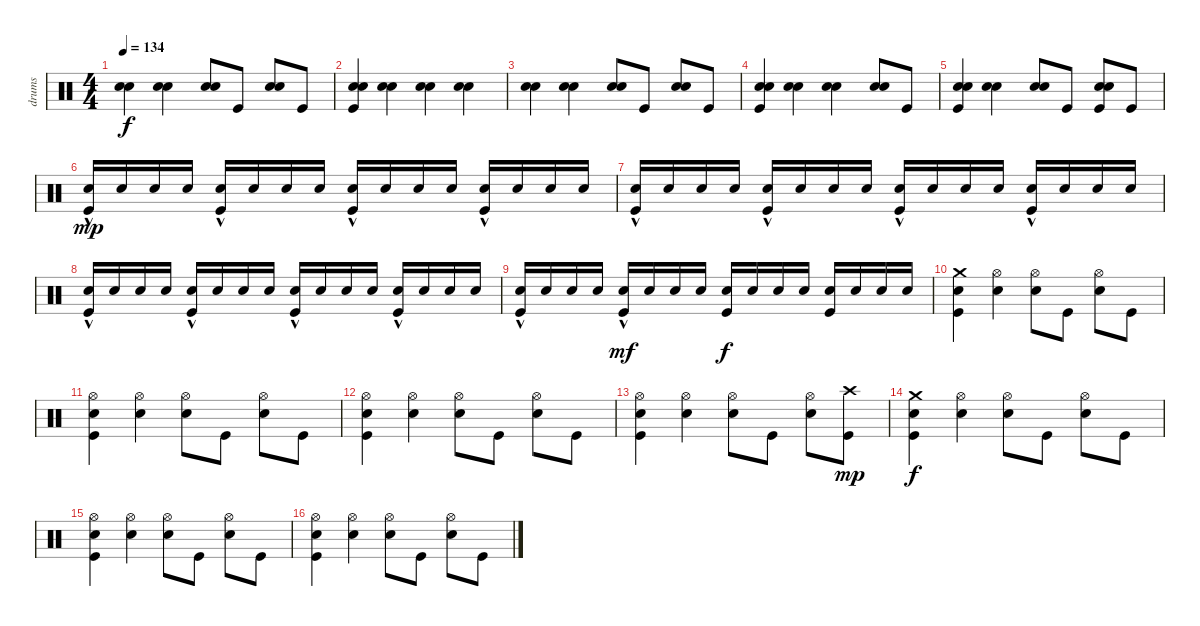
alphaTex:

\track ("drums" "drums") {instrument percussion}
\staff {score}
\articulation defaults
\ts (4 4)
\tempo 134
\clef neutral
\ks c
("Snare (hit) 2" "Snare (hit) 2").4{dy f} ("Snare (hit) 2" "Snare (hit) 2").4 ("Snare (hit) 2" "Snare (hit) 2").8 "Kick (hit)".8 ("Snare (hit) 2" "Snare (hit) 2").8 "Kick (hit)".8 |
("Snare (hit) 2" "Snare (hit) 2" "Kick (hit)").4 ("Snare (hit) 2" "Snare (hit) 2").4 ("Snare (hit) 2" "Snare (hit) 2").4 ("Snare (hit) 2" "Snare (hit) 2").4 |
("Snare (hit) 2" "Snare (hit) 2").4 ("Snare (hit) 2" "Snare (hit) 2").4 ("Snare (hit) 2" "Snare (hit) 2").8 "Kick (hit)".8 ("Snare (hit) 2" "Snare (hit) 2").8 "Kick (hit)".8 |
("Snare (hit) 2" "Snare (hit) 2" "Kick (hit)").4 ("Snare (hit) 2" "Snare (hit) 2").4 ("Snare (hit) 2" "Snare (hit) 2").4 ("Snare (hit) 2" "Snare (hit) 2").8 "Kick (hit)".8 |
("Snare (hit) 2" "Snare (hit) 2" "Kick (hit)").4 ("Snare (hit) 2" "Snare (hit) 2").4 ("Snare (hit) 2" "Snare (hit) 2").8 "Kick (hit)".8 ("Snare (hit) 2" "Snare (hit) 2" "Kick (hit)").8 "Kick (hit)".8 |
("Snare (hit) 2"{hac} "Kick (hit)").16{dy mp} "Snare (hit) 2".16 "Snare (hit) 2".16 "Snare (hit) 2".16 ("Snare (hit) 2"{hac} "Kick (hit)").16 "Snare (hit) 2".16 "Snare (hit) 2".16 "Snare (hit) 2".16 ("Snare (hit) 2"{hac} "Kick (hit)").16 "Snare (hit) 2".16 "Snare (hit) 2".16 "Snare (hit) 2".16 ("Snare (hit) 2"{hac} "Kick (hit)").16 "Snare (hit) 2".16 "Snare (hit) 2".16 "Snare (hit) 2".16 |
("Snare (hit) 2"{hac} "Kick (hit)").16 "Snare (hit) 2".16 "Snare (hit) 2".16 "Snare (hit) 2".16 ("Snare (hit) 2"{hac} "Kick (hit)").16 "Snare (hit) 2".16 "Snare (hit) 2".16 "Snare (hit) 2".16 ("Snare (hit) 2"{hac} "Kick (hit)").16 "Snare (hit) 2".16 "Snare (hit) 2".16 "Snare (hit) 2".16 ("Snare (hit) 2"{hac} "Kick (hit)").16 "Snare (hit) 2".16 "Snare (hit) 2".16 "Snare (hit) 2".16 |
("Snare (hit) 2"{hac} "Kick (hit)").16 "Snare (hit) 2".16 "Snare (hit) 2".16 "Snare (hit) 2".16 ("Snare (hit) 2"{hac} "Kick (hit)").16 "Snare (hit) 2".16 "Snare (hit) 2".16 "Snare (hit) 2".16 ("Snare (hit) 2"{hac} "Kick (hit)").16 "Snare (hit) 2".16 "Snare (hit) 2".16 "Snare (hit) 2".16 ("Snare (hit) 2"{hac} "Kick (hit)").16 "Snare (hit) 2".16 "Snare (hit) 2".16 "Snare (hit) 2".16 |
("Snare (hit) 2"{hac} "Kick (hit)").16 "Snare (hit) 2".16 "Snare (hit) 2".16 "Snare (hit) 2".16 ("Snare (hit) 2"{hac} "Kick (hit)").16{dy mf} "Snare (hit) 2".16 "Snare (hit) 2".16 "Snare (hit) 2".16 ("Snare (hit) 2" "Kick (hit)").16{dy f} "Snare (hit) 2".16 "Snare (hit) 2".16 "Snare (hit) 2".16 ("Snare (hit) 2" "Kick (hit)").16 "Snare (hit) 2".16 "Snare (hit) 2".16 "Snare (hit) 2".16 |
("Crash medium (hit)" "Snare (hit) 2" "Kick (hit)").4 ("Hi-Hat (open)" "Snare (hit) 2").4 ("Hi-Hat (open)" "Snare (hit) 2").8 "Kick (hit)".8 ("Hi-Hat (open)" "Snare (hit) 2").8 "Kick (hit)".8 |
("Hi-Hat (open)" "Snare (hit) 2" "Kick (hit)").4 ("Hi-Hat (open)" "Snare (hit) 2").4 ("Hi-Hat (open)" "Snare (hit) 2").8 "Kick (hit)".8 ("Hi-Hat (open)" "Snare (hit) 2").8 "Kick (hit)".8 |
("Hi-Hat (open)" "Snare (hit) 2" "Kick (hit)").4 ("Hi-Hat (open)" "Snare (hit) 2").4 ("Hi-Hat (open)" "Snare (hit) 2").8 "Kick (hit)".8 ("Hi-Hat (open)" "Snare (hit) 2").8 "Kick (hit)".8 |
("Hi-Hat (open)" "Snare (hit) 2" "Kick (hit)").4 ("Hi-Hat (open)" "Snare (hit) 2").4 ("Hi-Hat (open)" "Snare (hit) 2").8 "Kick (hit)".8 ("Hi-Hat (open)" "Snare (hit) 2").8 ("Crash high (hit)" "Kick (hit)").8{dy mp} |
("Crash medium (hit)" "Snare (hit) 2" "Kick (hit)").4{dy f} ("Hi-Hat (open)" "Snare (hit) 2").4 ("Hi-Hat (open)" "Snare (hit) 2").8 "Kick (hit)".8 ("Hi-Hat (open)" "Snare (hit) 2").8 "Kick (hit)".8 |
("Hi-Hat (open)" "Snare (hit) 2" "Kick (hit)").4 ("Hi-Hat (open)" "Snare (hit) 2").4 ("Hi-Hat (open)" "Snare (hit) 2").8 "Kick (hit)".8 ("Hi-Hat (open)" "Snare (hit) 2").8 "Kick (hit)".8 |
("Hi-Hat (open)" "Snare (hit) 2" "Kick (hit)").4 ("Hi-Hat (open)" "Snare (hit) 2").4 ("Hi-Hat (open)" "Snare (hit) 2").8 "Kick (hit)".8 ("Hi-Hat (open)" "Snare (hit) 2").8 "Kick (hit)".8
